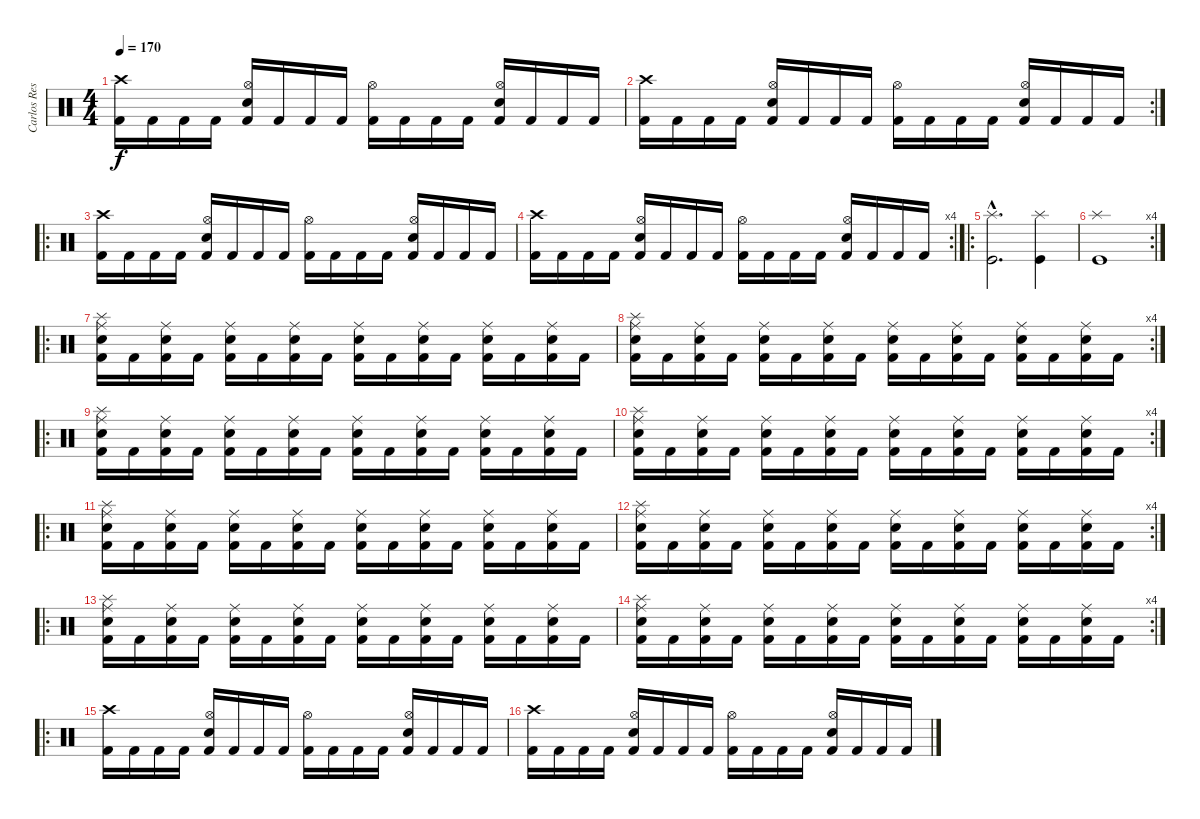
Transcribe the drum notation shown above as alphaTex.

\track ("Carlos Restrepo" "Carlos Res") {instrument percussion}
\staff {score}
\articulation defaults
\ts (4 4)
\tempo 170
\clef neutral
\ks c
("Kick (hit) 2" "Crash high (hit)").16{dy f} "Kick (hit) 2".16 "Kick (hit) 2".16 "Kick (hit) 2".16 ("Kick (hit) 2" "Hi-Hat (open)" "Electric Snare (hit)").16 "Kick (hit) 2".16 "Kick (hit) 2".16 "Kick (hit) 2".16 ("Kick (hit) 2" "Hi-Hat (open)").16 "Kick (hit) 2".16 "Kick (hit) 2".16 "Kick (hit) 2".16 ("Kick (hit) 2" "Hi-Hat (open)" "Electric Snare (hit)").16 "Kick (hit) 2".16 "Kick (hit) 2".16 "Kick (hit) 2".16 |
\rc 2
("Kick (hit) 2" "Crash high (hit)").16 "Kick (hit) 2".16 "Kick (hit) 2".16 "Kick (hit) 2".16 ("Kick (hit) 2" "Hi-Hat (open)" "Electric Snare (hit)").16 "Kick (hit) 2".16 "Kick (hit) 2".16 "Kick (hit) 2".16 ("Kick (hit) 2" "Hi-Hat (open)").16 "Kick (hit) 2".16 "Kick (hit) 2".16 "Kick (hit) 2".16 ("Kick (hit) 2" "Hi-Hat (open)" "Electric Snare (hit)").16 "Kick (hit) 2".16 "Kick (hit) 2".16 "Kick (hit) 2".16 |
\ro
("Kick (hit) 2" "Crash high (hit)").16 "Kick (hit) 2".16 "Kick (hit) 2".16 "Kick (hit) 2".16 ("Kick (hit) 2" "Hi-Hat (open)" "Electric Snare (hit)").16 "Kick (hit) 2".16 "Kick (hit) 2".16 "Kick (hit) 2".16 ("Kick (hit) 2" "Hi-Hat (open)").16 "Kick (hit) 2".16 "Kick (hit) 2".16 "Kick (hit) 2".16 ("Kick (hit) 2" "Hi-Hat (open)" "Electric Snare (hit)").16 "Kick (hit) 2".16 "Kick (hit) 2".16 "Kick (hit) 2".16 |
\rc 4
("Kick (hit) 2" "Crash high (hit)").16 "Kick (hit) 2".16 "Kick (hit) 2".16 "Kick (hit) 2".16 ("Kick (hit) 2" "Hi-Hat (open)" "Electric Snare (hit)").16 "Kick (hit) 2".16 "Kick (hit) 2".16 "Kick (hit) 2".16 ("Kick (hit) 2" "Hi-Hat (open)").16 "Kick (hit) 2".16 "Kick (hit) 2".16 "Kick (hit) 2".16 ("Kick (hit) 2" "Hi-Hat (open)" "Electric Snare (hit)").16 "Kick (hit) 2".16 "Kick (hit) 2".16 "Kick (hit) 2".16 |
\ro
("Splash (hit)"{hac} "Kick (hit)"{hac}).2{d} ("Splash (hit)" "Kick (hit)").4 |
\rc 4
("Splash (hit)" "Kick (hit)").1 |
\ro
("Kick (hit) 2" "Snare (hit) 2" "Ride (middle)" "Splash (hit)").16 "Kick (hit) 2".16 ("Kick (hit) 2" "Snare (hit) 2" "Ride (middle)").16 "Kick (hit) 2".16 ("Kick (hit) 2" "Snare (hit) 2" "Ride (middle)").16 "Kick (hit) 2".16 ("Kick (hit) 2" "Snare (hit) 2" "Ride (middle)").16 "Kick (hit) 2".16 ("Kick (hit) 2" "Snare (hit) 2" "Ride (middle)").16 "Kick (hit) 2".16 ("Kick (hit) 2" "Snare (hit) 2" "Ride (middle)").16 "Kick (hit) 2".16 ("Kick (hit) 2" "Snare (hit) 2" "Ride (middle)").16 "Kick (hit) 2".16 ("Kick (hit) 2" "Snare (hit) 2" "Ride (middle)").16 "Kick (hit) 2".16 |
\rc 4
("Kick (hit) 2" "Snare (hit) 2" "Ride (middle)" "Splash (hit)").16 "Kick (hit) 2".16 ("Kick (hit) 2" "Snare (hit) 2" "Ride (middle)").16 "Kick (hit) 2".16 ("Kick (hit) 2" "Snare (hit) 2" "Ride (middle)").16 "Kick (hit) 2".16 ("Kick (hit) 2" "Snare (hit) 2" "Ride (middle)").16 "Kick (hit) 2".16 ("Kick (hit) 2" "Snare (hit) 2" "Ride (middle)").16 "Kick (hit) 2".16 ("Kick (hit) 2" "Snare (hit) 2" "Ride (middle)").16 "Kick (hit) 2".16 ("Kick (hit) 2" "Snare (hit) 2" "Ride (middle)").16 "Kick (hit) 2".16 ("Kick (hit) 2" "Snare (hit) 2" "Ride (middle)").16 "Kick (hit) 2".16 |
\ro
("Kick (hit) 2" "Snare (hit) 2" "Ride (middle)" "Splash (hit)").16 "Kick (hit) 2".16 ("Kick (hit) 2" "Snare (hit) 2" "Ride (middle)").16 "Kick (hit) 2".16 ("Kick (hit) 2" "Snare (hit) 2" "Ride (middle)").16 "Kick (hit) 2".16 ("Kick (hit) 2" "Snare (hit) 2" "Ride (middle)").16 "Kick (hit) 2".16 ("Kick (hit) 2" "Snare (hit) 2" "Ride (middle)").16 "Kick (hit) 2".16 ("Kick (hit) 2" "Snare (hit) 2" "Ride (middle)").16 "Kick (hit) 2".16 ("Kick (hit) 2" "Snare (hit) 2" "Ride (middle)").16 "Kick (hit) 2".16 ("Kick (hit) 2" "Snare (hit) 2" "Ride (middle)").16 "Kick (hit) 2".16 |
\rc 4
("Kick (hit) 2" "Snare (hit) 2" "Ride (middle)" "Splash (hit)").16 "Kick (hit) 2".16 ("Kick (hit) 2" "Snare (hit) 2" "Ride (middle)").16 "Kick (hit) 2".16 ("Kick (hit) 2" "Snare (hit) 2" "Ride (middle)").16 "Kick (hit) 2".16 ("Kick (hit) 2" "Snare (hit) 2" "Ride (middle)").16 "Kick (hit) 2".16 ("Kick (hit) 2" "Snare (hit) 2" "Ride (middle)").16 "Kick (hit) 2".16 ("Kick (hit) 2" "Snare (hit) 2" "Ride (middle)").16 "Kick (hit) 2".16 ("Kick (hit) 2" "Snare (hit) 2" "Ride (middle)").16 "Kick (hit) 2".16 ("Kick (hit) 2" "Snare (hit) 2" "Ride (middle)").16 "Kick (hit) 2".16 |
\ro
("Kick (hit) 2" "Snare (hit) 2" "Ride (middle)" "Splash (hit)").16 "Kick (hit) 2".16 ("Kick (hit) 2" "Snare (hit) 2" "Ride (middle)").16 "Kick (hit) 2".16 ("Kick (hit) 2" "Snare (hit) 2" "Ride (middle)").16 "Kick (hit) 2".16 ("Kick (hit) 2" "Snare (hit) 2" "Ride (middle)").16 "Kick (hit) 2".16 ("Kick (hit) 2" "Snare (hit) 2" "Ride (middle)").16 "Kick (hit) 2".16 ("Kick (hit) 2" "Snare (hit) 2" "Ride (middle)").16 "Kick (hit) 2".16 ("Kick (hit) 2" "Snare (hit) 2" "Ride (middle)").16 "Kick (hit) 2".16 ("Kick (hit) 2" "Snare (hit) 2" "Ride (middle)").16 "Kick (hit) 2".16 |
\rc 4
("Kick (hit) 2" "Snare (hit) 2" "Ride (middle)" "Splash (hit)").16 "Kick (hit) 2".16 ("Kick (hit) 2" "Snare (hit) 2" "Ride (middle)").16 "Kick (hit) 2".16 ("Kick (hit) 2" "Snare (hit) 2" "Ride (middle)").16 "Kick (hit) 2".16 ("Kick (hit) 2" "Snare (hit) 2" "Ride (middle)").16 "Kick (hit) 2".16 ("Kick (hit) 2" "Snare (hit) 2" "Ride (middle)").16 "Kick (hit) 2".16 ("Kick (hit) 2" "Snare (hit) 2" "Ride (middle)").16 "Kick (hit) 2".16 ("Kick (hit) 2" "Snare (hit) 2" "Ride (middle)").16 "Kick (hit) 2".16 ("Kick (hit) 2" "Snare (hit) 2" "Ride (middle)").16 "Kick (hit) 2".16 |
\ro
("Kick (hit) 2" "Snare (hit) 2" "Ride (middle)" "Splash (hit)").16 "Kick (hit) 2".16 ("Kick (hit) 2" "Snare (hit) 2" "Ride (middle)").16 "Kick (hit) 2".16 ("Kick (hit) 2" "Snare (hit) 2" "Ride (middle)").16 "Kick (hit) 2".16 ("Kick (hit) 2" "Snare (hit) 2" "Ride (middle)").16 "Kick (hit) 2".16 ("Kick (hit) 2" "Snare (hit) 2" "Ride (middle)").16 "Kick (hit) 2".16 ("Kick (hit) 2" "Snare (hit) 2" "Ride (middle)").16 "Kick (hit) 2".16 ("Kick (hit) 2" "Snare (hit) 2" "Ride (middle)").16 "Kick (hit) 2".16 ("Kick (hit) 2" "Snare (hit) 2" "Ride (middle)").16 "Kick (hit) 2".16 |
\rc 4
("Kick (hit) 2" "Snare (hit) 2" "Ride (middle)" "Splash (hit)").16 "Kick (hit) 2".16 ("Kick (hit) 2" "Snare (hit) 2" "Ride (middle)").16 "Kick (hit) 2".16 ("Kick (hit) 2" "Snare (hit) 2" "Ride (middle)").16 "Kick (hit) 2".16 ("Kick (hit) 2" "Snare (hit) 2" "Ride (middle)").16 "Kick (hit) 2".16 ("Kick (hit) 2" "Snare (hit) 2" "Ride (middle)").16 "Kick (hit) 2".16 ("Kick (hit) 2" "Snare (hit) 2" "Ride (middle)").16 "Kick (hit) 2".16 ("Kick (hit) 2" "Snare (hit) 2" "Ride (middle)").16 "Kick (hit) 2".16 ("Kick (hit) 2" "Snare (hit) 2" "Ride (middle)").16 "Kick (hit) 2".16 |
\ro
("Kick (hit) 2" "Crash high (hit)").16 "Kick (hit) 2".16 "Kick (hit) 2".16 "Kick (hit) 2".16 ("Kick (hit) 2" "Hi-Hat (open)" "Electric Snare (hit)").16 "Kick (hit) 2".16 "Kick (hit) 2".16 "Kick (hit) 2".16 ("Kick (hit) 2" "Hi-Hat (open)").16 "Kick (hit) 2".16 "Kick (hit) 2".16 "Kick (hit) 2".16 ("Kick (hit) 2" "Hi-Hat (open)" "Electric Snare (hit)").16 "Kick (hit) 2".16 "Kick (hit) 2".16 "Kick (hit) 2".16 |
("Kick (hit) 2" "Crash high (hit)").16 "Kick (hit) 2".16 "Kick (hit) 2".16 "Kick (hit) 2".16 ("Kick (hit) 2" "Hi-Hat (open)" "Electric Snare (hit)").16 "Kick (hit) 2".16 "Kick (hit) 2".16 "Kick (hit) 2".16 ("Kick (hit) 2" "Hi-Hat (open)").16 "Kick (hit) 2".16 "Kick (hit) 2".16 "Kick (hit) 2".16 ("Kick (hit) 2" "Hi-Hat (open)" "Electric Snare (hit)").16 "Kick (hit) 2".16 "Kick (hit) 2".16 "Kick (hit) 2".16
